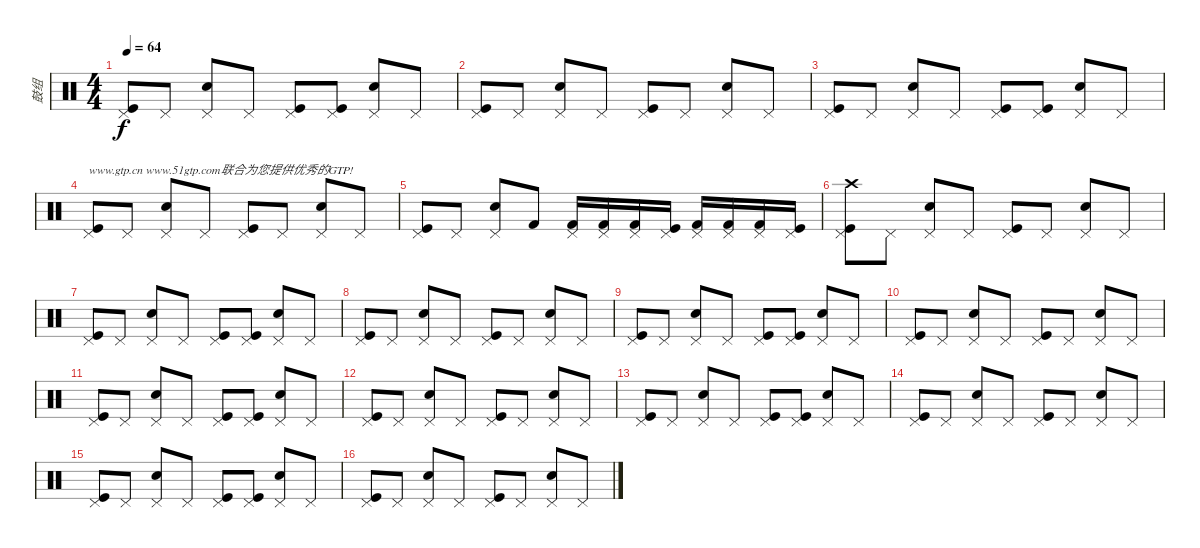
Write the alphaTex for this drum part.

\track ("鼓组" "鼓组") {instrument percussion}
\staff {score}
\articulation defaults
\ts (4 4)
\tempo 64
\clef neutral
\ks c
("Kick (hit)" "Pedal Hi-Hat (hit)").8{dy f} "Pedal Hi-Hat (hit)".8 ("Snare (hit) 2" "Pedal Hi-Hat (hit)").8 "Pedal Hi-Hat (hit)".8 ("Kick (hit)" "Pedal Hi-Hat (hit)").8 ("Kick (hit)" "Pedal Hi-Hat (hit)").8 ("Snare (hit) 2" "Pedal Hi-Hat (hit)").8 "Pedal Hi-Hat (hit)".8 |
("Kick (hit)" "Pedal Hi-Hat (hit)").8 "Pedal Hi-Hat (hit)".8 ("Snare (hit) 2" "Pedal Hi-Hat (hit)").8 "Pedal Hi-Hat (hit)".8 ("Kick (hit)" "Pedal Hi-Hat (hit)").8 "Pedal Hi-Hat (hit)".8 ("Snare (hit) 2" "Pedal Hi-Hat (hit)").8 "Pedal Hi-Hat (hit)".8 |
("Kick (hit)" "Pedal Hi-Hat (hit)").8 "Pedal Hi-Hat (hit)".8 ("Snare (hit) 2" "Pedal Hi-Hat (hit)").8 "Pedal Hi-Hat (hit)".8 ("Kick (hit)" "Pedal Hi-Hat (hit)").8 ("Kick (hit)" "Pedal Hi-Hat (hit)").8 ("Snare (hit) 2" "Pedal Hi-Hat (hit)").8 "Pedal Hi-Hat (hit)".8 |
("Kick (hit)" "Pedal Hi-Hat (hit)").8{txt "www.gtp.cn www.51gtp.com联合为您提供优秀的GTP!"} "Pedal Hi-Hat (hit)".8 ("Snare (hit) 2" "Pedal Hi-Hat (hit)").8 "Pedal Hi-Hat (hit)".8 ("Kick (hit)" "Pedal Hi-Hat (hit)").8 "Pedal Hi-Hat (hit)".8 ("Snare (hit) 2" "Pedal Hi-Hat (hit)").8 "Pedal Hi-Hat (hit)".8 |
("Kick (hit)" "Pedal Hi-Hat (hit)").8 "Pedal Hi-Hat (hit)".8 ("Snare (hit) 2" "Pedal Hi-Hat (hit)").8 "Kick (hit) 2".8 ("Kick (hit) 2" "Pedal Hi-Hat (hit)").16 ("Kick (hit) 2" "Pedal Hi-Hat (hit)").16 ("Kick (hit) 2" "Pedal Hi-Hat (hit)").16 ("Kick (hit)" "Pedal Hi-Hat (hit)").16 ("Kick (hit) 2" "Pedal Hi-Hat (hit)").16 ("Kick (hit) 2" "Pedal Hi-Hat (hit)").16 ("Kick (hit) 2" "Pedal Hi-Hat (hit)").16 ("Kick (hit)" "Pedal Hi-Hat (hit)").16 |
("Kick (hit)" "Pedal Hi-Hat (hit)" "Crash high (hit)").8 "Pedal Hi-Hat (hit)".8 ("Snare (hit) 2" "Pedal Hi-Hat (hit)").8 "Pedal Hi-Hat (hit)".8 ("Kick (hit)" "Pedal Hi-Hat (hit)").8 "Pedal Hi-Hat (hit)".8 ("Snare (hit) 2" "Pedal Hi-Hat (hit)").8 "Pedal Hi-Hat (hit)".8 |
("Kick (hit)" "Pedal Hi-Hat (hit)").8 "Pedal Hi-Hat (hit)".8 ("Snare (hit) 2" "Pedal Hi-Hat (hit)").8 "Pedal Hi-Hat (hit)".8 ("Kick (hit)" "Pedal Hi-Hat (hit)").8 ("Kick (hit)" "Pedal Hi-Hat (hit)").8 ("Snare (hit) 2" "Pedal Hi-Hat (hit)").8 "Pedal Hi-Hat (hit)".8 |
("Kick (hit)" "Pedal Hi-Hat (hit)").8 "Pedal Hi-Hat (hit)".8 ("Snare (hit) 2" "Pedal Hi-Hat (hit)").8 "Pedal Hi-Hat (hit)".8 ("Kick (hit)" "Pedal Hi-Hat (hit)").8 "Pedal Hi-Hat (hit)".8 ("Snare (hit) 2" "Pedal Hi-Hat (hit)").8 "Pedal Hi-Hat (hit)".8 |
("Kick (hit)" "Pedal Hi-Hat (hit)").8 "Pedal Hi-Hat (hit)".8 ("Snare (hit) 2" "Pedal Hi-Hat (hit)").8 "Pedal Hi-Hat (hit)".8 ("Kick (hit)" "Pedal Hi-Hat (hit)").8 ("Kick (hit)" "Pedal Hi-Hat (hit)").8 ("Snare (hit) 2" "Pedal Hi-Hat (hit)").8 "Pedal Hi-Hat (hit)".8 |
("Kick (hit)" "Pedal Hi-Hat (hit)").8 "Pedal Hi-Hat (hit)".8 ("Snare (hit) 2" "Pedal Hi-Hat (hit)").8 "Pedal Hi-Hat (hit)".8 ("Kick (hit)" "Pedal Hi-Hat (hit)").8 "Pedal Hi-Hat (hit)".8 ("Snare (hit) 2" "Pedal Hi-Hat (hit)").8 "Pedal Hi-Hat (hit)".8 |
("Kick (hit)" "Pedal Hi-Hat (hit)").8 "Pedal Hi-Hat (hit)".8 ("Snare (hit) 2" "Pedal Hi-Hat (hit)").8 "Pedal Hi-Hat (hit)".8 ("Kick (hit)" "Pedal Hi-Hat (hit)").8 ("Kick (hit)" "Pedal Hi-Hat (hit)").8 ("Snare (hit) 2" "Pedal Hi-Hat (hit)").8 "Pedal Hi-Hat (hit)".8 |
("Kick (hit)" "Pedal Hi-Hat (hit)").8 "Pedal Hi-Hat (hit)".8 ("Snare (hit) 2" "Pedal Hi-Hat (hit)").8 "Pedal Hi-Hat (hit)".8 ("Kick (hit)" "Pedal Hi-Hat (hit)").8 "Pedal Hi-Hat (hit)".8 ("Snare (hit) 2" "Pedal Hi-Hat (hit)").8 "Pedal Hi-Hat (hit)".8 |
("Kick (hit)" "Pedal Hi-Hat (hit)").8 "Pedal Hi-Hat (hit)".8 ("Snare (hit) 2" "Pedal Hi-Hat (hit)").8 "Pedal Hi-Hat (hit)".8 ("Kick (hit)" "Pedal Hi-Hat (hit)").8 ("Kick (hit)" "Pedal Hi-Hat (hit)").8 ("Snare (hit) 2" "Pedal Hi-Hat (hit)").8 "Pedal Hi-Hat (hit)".8 |
("Kick (hit)" "Pedal Hi-Hat (hit)").8 "Pedal Hi-Hat (hit)".8 ("Snare (hit) 2" "Pedal Hi-Hat (hit)").8 "Pedal Hi-Hat (hit)".8 ("Kick (hit)" "Pedal Hi-Hat (hit)").8 "Pedal Hi-Hat (hit)".8 ("Snare (hit) 2" "Pedal Hi-Hat (hit)").8 "Pedal Hi-Hat (hit)".8 |
("Kick (hit)" "Pedal Hi-Hat (hit)").8 "Pedal Hi-Hat (hit)".8 ("Snare (hit) 2" "Pedal Hi-Hat (hit)").8 "Pedal Hi-Hat (hit)".8 ("Kick (hit)" "Pedal Hi-Hat (hit)").8 ("Kick (hit)" "Pedal Hi-Hat (hit)").8 ("Snare (hit) 2" "Pedal Hi-Hat (hit)").8 "Pedal Hi-Hat (hit)".8 |
("Kick (hit)" "Pedal Hi-Hat (hit)").8 "Pedal Hi-Hat (hit)".8 ("Snare (hit) 2" "Pedal Hi-Hat (hit)").8 "Pedal Hi-Hat (hit)".8 ("Kick (hit)" "Pedal Hi-Hat (hit)").8 "Pedal Hi-Hat (hit)".8 ("Snare (hit) 2" "Pedal Hi-Hat (hit)").8 "Pedal Hi-Hat (hit)".8
